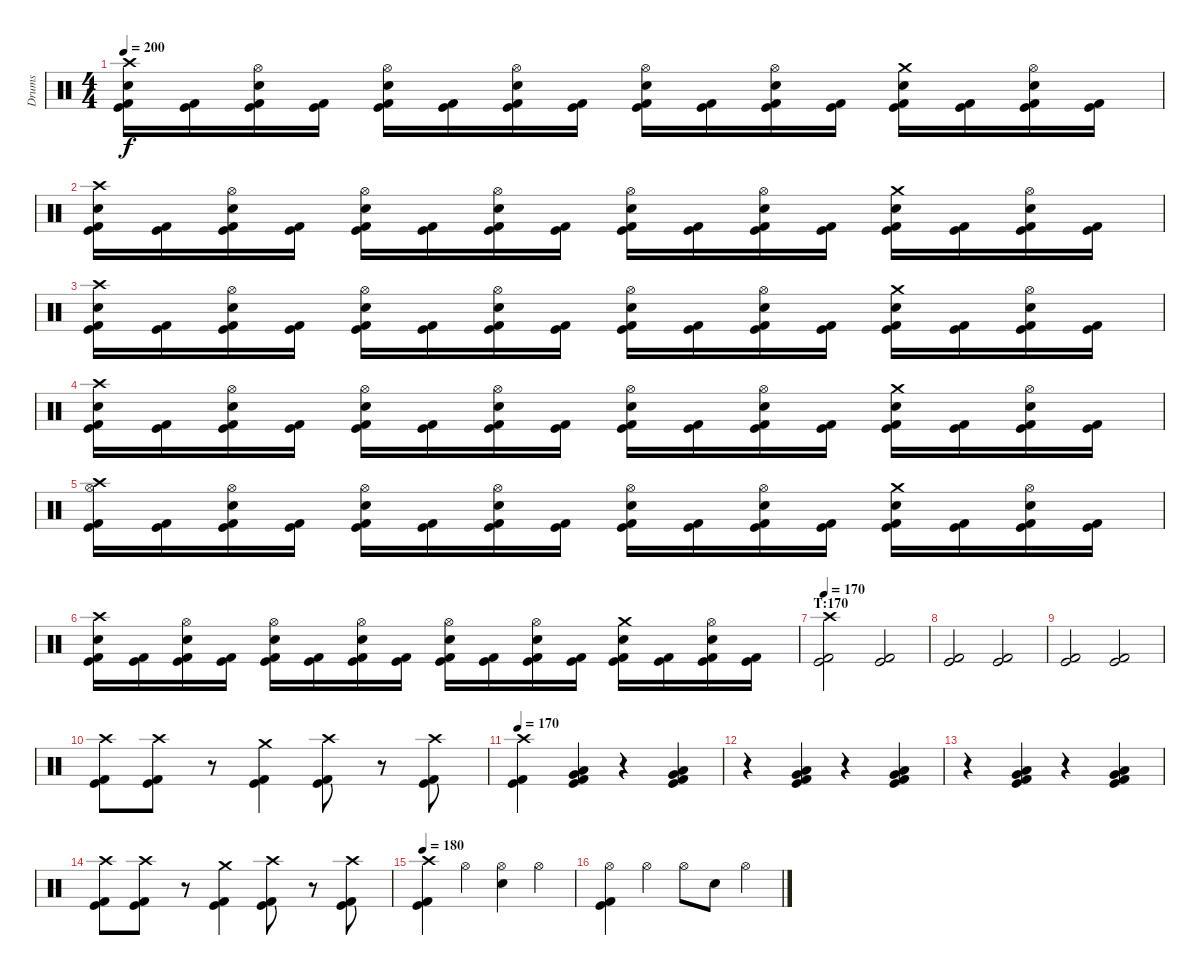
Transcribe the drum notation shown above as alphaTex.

\track ("Drums" "Drums") {instrument percussion}
\staff {score}
\articulation defaults
\ts (4 4)
\tempo 200
\clef neutral
\ks c
("Crash high (hit)" "Electric Snare (hit)" "Kick (hit)" "Kick (hit) 2").16{dy f} ("Kick (hit)" "Kick (hit) 2").16 ("Hi-Hat (open)" "Electric Snare (hit)" "Kick (hit)" "Kick (hit) 2").16 ("Kick (hit)" "Kick (hit) 2").16 ("Hi-Hat (open)" "Electric Snare (hit)" "Kick (hit)" "Kick (hit) 2").16 ("Kick (hit)" "Kick (hit) 2").16 ("Hi-Hat (open)" "Electric Snare (hit)" "Kick (hit)" "Kick (hit) 2").16 ("Kick (hit)" "Kick (hit) 2").16 ("Hi-Hat (open)" "Electric Snare (hit)" "Kick (hit)" "Kick (hit) 2").16 ("Kick (hit)" "Kick (hit) 2").16 ("Hi-Hat (open)" "Electric Snare (hit)" "Kick (hit)" "Kick (hit) 2").16 ("Kick (hit)" "Kick (hit) 2").16 ("Crash medium (hit)" "Electric Snare (hit)" "Kick (hit)" "Kick (hit) 2").16 ("Kick (hit)" "Kick (hit) 2").16 ("Hi-Hat (open)" "Electric Snare (hit)" "Kick (hit)" "Kick (hit) 2").16 ("Kick (hit)" "Kick (hit) 2").16 |
("Crash high (hit)" "Electric Snare (hit)" "Kick (hit)" "Kick (hit) 2").16 ("Kick (hit)" "Kick (hit) 2").16 ("Hi-Hat (open)" "Electric Snare (hit)" "Kick (hit)" "Kick (hit) 2").16 ("Kick (hit)" "Kick (hit) 2").16 ("Hi-Hat (open)" "Electric Snare (hit)" "Kick (hit)" "Kick (hit) 2").16 ("Kick (hit)" "Kick (hit) 2").16 ("Hi-Hat (open)" "Electric Snare (hit)" "Kick (hit)" "Kick (hit) 2").16 ("Kick (hit)" "Kick (hit) 2").16 ("Hi-Hat (open)" "Electric Snare (hit)" "Kick (hit)" "Kick (hit) 2").16 ("Kick (hit)" "Kick (hit) 2").16 ("Hi-Hat (open)" "Electric Snare (hit)" "Kick (hit)" "Kick (hit) 2").16 ("Kick (hit)" "Kick (hit) 2").16 ("Crash medium (hit)" "Electric Snare (hit)" "Kick (hit)" "Kick (hit) 2").16 ("Kick (hit)" "Kick (hit) 2").16 ("Hi-Hat (open)" "Electric Snare (hit)" "Kick (hit)" "Kick (hit) 2").16 ("Kick (hit)" "Kick (hit) 2").16 |
("Crash high (hit)" "Electric Snare (hit)" "Kick (hit)" "Kick (hit) 2").16 ("Kick (hit)" "Kick (hit) 2").16 ("Hi-Hat (open)" "Electric Snare (hit)" "Kick (hit)" "Kick (hit) 2").16 ("Kick (hit)" "Kick (hit) 2").16 ("Hi-Hat (open)" "Electric Snare (hit)" "Kick (hit)" "Kick (hit) 2").16 ("Kick (hit)" "Kick (hit) 2").16 ("Hi-Hat (open)" "Electric Snare (hit)" "Kick (hit)" "Kick (hit) 2").16 ("Kick (hit)" "Kick (hit) 2").16 ("Hi-Hat (open)" "Electric Snare (hit)" "Kick (hit)" "Kick (hit) 2").16 ("Kick (hit)" "Kick (hit) 2").16 ("Hi-Hat (open)" "Electric Snare (hit)" "Kick (hit)" "Kick (hit) 2").16 ("Kick (hit)" "Kick (hit) 2").16 ("Crash medium (hit)" "Electric Snare (hit)" "Kick (hit)" "Kick (hit) 2").16 ("Kick (hit)" "Kick (hit) 2").16 ("Hi-Hat (open)" "Electric Snare (hit)" "Kick (hit)" "Kick (hit) 2").16 ("Kick (hit)" "Kick (hit) 2").16 |
("Crash high (hit)" "Electric Snare (hit)" "Kick (hit)" "Kick (hit) 2").16 ("Kick (hit)" "Kick (hit) 2").16 ("Hi-Hat (open)" "Electric Snare (hit)" "Kick (hit)" "Kick (hit) 2").16 ("Kick (hit)" "Kick (hit) 2").16 ("Hi-Hat (open)" "Electric Snare (hit)" "Kick (hit)" "Kick (hit) 2").16 ("Kick (hit)" "Kick (hit) 2").16 ("Hi-Hat (open)" "Electric Snare (hit)" "Kick (hit)" "Kick (hit) 2").16 ("Kick (hit)" "Kick (hit) 2").16 ("Hi-Hat (open)" "Electric Snare (hit)" "Kick (hit)" "Kick (hit) 2").16 ("Kick (hit)" "Kick (hit) 2").16 ("Hi-Hat (open)" "Electric Snare (hit)" "Kick (hit)" "Kick (hit) 2").16 ("Kick (hit)" "Kick (hit) 2").16 ("Crash medium (hit)" "Electric Snare (hit)" "Kick (hit)" "Kick (hit) 2").16 ("Kick (hit)" "Kick (hit) 2").16 ("Hi-Hat (open)" "Electric Snare (hit)" "Kick (hit)" "Kick (hit) 2").16 ("Kick (hit)" "Kick (hit) 2").16 |
("Hi-Hat (open)" "Crash high (hit)" "Kick (hit)" "Kick (hit) 2").16 ("Kick (hit)" "Kick (hit) 2").16 ("Hi-Hat (open)" "Electric Snare (hit)" "Kick (hit)" "Kick (hit) 2").16 ("Kick (hit)" "Kick (hit) 2").16 ("Hi-Hat (open)" "Electric Snare (hit)" "Kick (hit)" "Kick (hit) 2").16 ("Kick (hit)" "Kick (hit) 2").16 ("Hi-Hat (open)" "Electric Snare (hit)" "Kick (hit)" "Kick (hit) 2").16 ("Kick (hit)" "Kick (hit) 2").16 ("Hi-Hat (open)" "Electric Snare (hit)" "Kick (hit)" "Kick (hit) 2").16 ("Kick (hit)" "Kick (hit) 2").16 ("Hi-Hat (open)" "Electric Snare (hit)" "Kick (hit)" "Kick (hit) 2").16 ("Kick (hit)" "Kick (hit) 2").16 ("Crash medium (hit)" "Electric Snare (hit)" "Kick (hit)" "Kick (hit) 2").16 ("Kick (hit)" "Kick (hit) 2").16 ("Hi-Hat (open)" "Electric Snare (hit)" "Kick (hit)" "Kick (hit) 2").16 ("Kick (hit)" "Kick (hit) 2").16 |
("Crash high (hit)" "Electric Snare (hit)" "Kick (hit)" "Kick (hit) 2").16 ("Kick (hit)" "Kick (hit) 2").16 ("Hi-Hat (open)" "Electric Snare (hit)" "Kick (hit)" "Kick (hit) 2").16 ("Kick (hit)" "Kick (hit) 2").16 ("Hi-Hat (open)" "Electric Snare (hit)" "Kick (hit)" "Kick (hit) 2").16 ("Kick (hit)" "Kick (hit) 2").16 ("Hi-Hat (open)" "Electric Snare (hit)" "Kick (hit)" "Kick (hit) 2").16 ("Kick (hit)" "Kick (hit) 2").16 ("Hi-Hat (open)" "Electric Snare (hit)" "Kick (hit)" "Kick (hit) 2").16 ("Kick (hit)" "Kick (hit) 2").16 ("Hi-Hat (open)" "Electric Snare (hit)" "Kick (hit)" "Kick (hit) 2").16 ("Kick (hit)" "Kick (hit) 2").16 ("Crash medium (hit)" "Electric Snare (hit)" "Kick (hit)" "Kick (hit) 2").16 ("Kick (hit)" "Kick (hit) 2").16 ("Hi-Hat (open)" "Electric Snare (hit)" "Kick (hit)" "Kick (hit) 2").16 ("Kick (hit)" "Kick (hit) 2").16 |
\section ("" "T:170")
\tempo 170
("Crash high (hit)" "Kick (hit)" "Kick (hit) 2").2 ("Kick (hit)" "Kick (hit) 2").2 |
("Kick (hit)" "Kick (hit) 2").2 ("Kick (hit)" "Kick (hit) 2").2 |
("Kick (hit)" "Kick (hit) 2").2 ("Kick (hit)" "Kick (hit) 2").2 |
("Crash high (hit)" "Kick (hit)" "Kick (hit) 2").8 ("Crash high (hit)" "Kick (hit)" "Kick (hit) 2").8 r.8 ("Crash medium (hit)" "Kick (hit)" "Kick (hit) 2").4 ("Crash high (hit)" "Kick (hit)" "Kick (hit) 2").8 r.8 ("Crash high (hit)" "Kick (hit)" "Kick (hit) 2").8 |
\tempo 170
("Crash high (hit)" "Kick (hit)" "Kick (hit) 2").4 ("Very Low Tom (hit)" "Low Tom (hit)" "Kick (hit)" "Kick (hit) 2").4 r.4 ("Very Low Tom (hit)" "Low Tom (hit)" "Kick (hit)" "Kick (hit) 2").4 |
r.4 ("Very Low Tom (hit)" "Low Tom (hit)" "Kick (hit)" "Kick (hit) 2").4 r.4 ("Very Low Tom (hit)" "Low Tom (hit)" "Kick (hit)" "Kick (hit) 2").4 |
r.4 ("Very Low Tom (hit)" "Low Tom (hit)" "Kick (hit)" "Kick (hit) 2").4 r.4 ("Very Low Tom (hit)" "Low Tom (hit)" "Kick (hit)" "Kick (hit) 2").4 |
("Crash high (hit)" "Kick (hit)" "Kick (hit) 2").8 ("Crash high (hit)" "Kick (hit)" "Kick (hit) 2").8 r.8 ("Crash medium (hit)" "Kick (hit)" "Kick (hit) 2").4 ("Crash high (hit)" "Kick (hit)" "Kick (hit) 2").8 r.8 ("Crash high (hit)" "Kick (hit)" "Kick (hit) 2").8 |
\tempo 170
\tempo 180
("Crash high (hit)" "Kick (hit)" "Kick (hit) 2").4 "Hi-Hat (open)".4 ("Hi-Hat (open)" "Electric Snare (hit)").4 "Hi-Hat (open)".4 |
("Hi-Hat (open)" "Kick (hit)" "Kick (hit) 2").4 "Hi-Hat (open)".4 "Hi-Hat (open)".8 "Electric Snare (hit)".8 "Hi-Hat (open)".4
